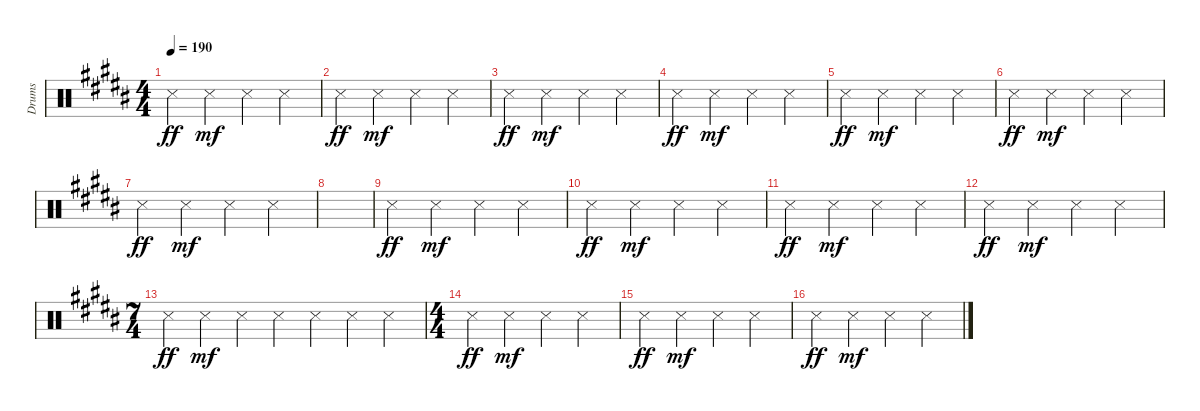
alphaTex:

\bracketExtendMode groupsimilarinstruments
\otherSystemsTrackNameOrientation horizontal
\track ("Drumkit" "Drums") {mute instrument percussion}
\staff {score}
\articulation defaults
\ts (4 4)
\tempo 190
\clef neutral
\ks b "Snare (side stick) 3"{acc forcenatural}.4{dy ff} "Snare (side stick) 3"{acc forcenatural}.4{dy mf} "Snare (side stick) 3"{acc forcenatural}.4 "Snare (side stick) 3"{acc forcenatural}.4
|
"Snare (side stick) 3"{acc forcenatural}.4{dy ff} "Snare (side stick) 3"{acc forcenatural}.4{dy mf} "Snare (side stick) 3"{acc forcenatural}.4 "Snare (side stick) 3"{acc forcenatural}.4 |
"Snare (side stick) 3"{acc forcenatural}.4{dy ff} "Snare (side stick) 3"{acc forcenatural}.4{dy mf} "Snare (side stick) 3"{acc forcenatural}.4 "Snare (side stick) 3"{acc forcenatural}.4 |
"Snare (side stick) 3"{acc forcenatural}.4{dy ff} "Snare (side stick) 3"{acc forcenatural}.4{dy mf} "Snare (side stick) 3"{acc forcenatural}.4 "Snare (side stick) 3"{acc forcenatural}.4 |
"Snare (side stick) 3"{acc forcenatural}.4{dy ff} "Snare (side stick) 3"{acc forcenatural}.4{dy mf} "Snare (side stick) 3"{acc forcenatural}.4 "Snare (side stick) 3"{acc forcenatural}.4 |
"Snare (side stick) 3"{acc forcenatural}.4{dy ff} "Snare (side stick) 3"{acc forcenatural}.4{dy mf} "Snare (side stick) 3"{acc forcenatural}.4 "Snare (side stick) 3"{acc forcenatural}.4 |
"Snare (side stick) 3"{acc forcenatural}.4{dy ff} "Snare (side stick) 3"{acc forcenatural}.4{dy mf} "Snare (side stick) 3"{acc forcenatural}.4 "Snare (side stick) 3"{acc forcenatural}.4 |
|
\scale
0.333333 "Snare (side stick) 3"{acc forcenatural}.4{dy ff} "Snare (side stick) 3"{acc forcenatural}.4{dy mf} "Snare (side stick) 3"{acc forcenatural}.4 "Snare (side stick) 3"{acc forcenatural}.4 |
\scale
0.333333 "Snare (side stick) 3"{acc forcenatural}.4{dy ff} "Snare (side stick) 3"{acc forcenatural}.4{dy mf} "Snare (side stick) 3"{acc forcenatural}.4 "Snare (side stick) 3"{acc forcenatural}.4 |
\scale
0.263889 "Snare (side stick) 3"{acc forcenatural}.4{dy ff} "Snare (side stick) 3"{acc forcenatural}.4{dy mf} "Snare (side stick) 3"{acc forcenatural}.4 "Snare (side stick) 3"{acc forcenatural}.4 |
\scale
0.263889 "Snare (side stick) 3"{acc forcenatural}.4{dy ff} "Snare (side stick) 3"{acc forcenatural}.4{dy mf} "Snare (side stick) 3"{acc forcenatural}.4 "Snare (side stick) 3"{acc forcenatural}.4 |
\ts (7 4)
\scale
0.472222 "Snare (side stick) 3"{acc forcenatural}.4{dy ff} "Snare (side stick) 3"{acc forcenatural}.4{dy mf} "Snare (side stick) 3"{acc forcenatural}.4 "Snare (side stick) 3"{acc forcenatural}.4 "Snare (side stick) 3"{acc forcenatural}.4 "Snare (side stick) 3"{acc forcenatural}.4 "Snare (side stick) 3"{acc forcenatural}.4 |
\ts (4 4)
\scale
0.472222 "Snare (side stick) 3"{acc forcenatural}.4{dy ff} "Snare (side stick) 3"{acc forcenatural}.4{dy mf} "Snare (side stick) 3"{acc forcenatural}.4 "Snare (side stick) 3"{acc forcenatural}.4 |
\scale
0.263889 "Snare (side stick) 3"{acc forcenatural}.4{dy ff} "Snare (side stick) 3"{acc forcenatural}.4{dy mf} "Snare (side stick) 3"{acc forcenatural}.4 "Snare (side stick) 3"{acc forcenatural}.4 |
\scale
0.263889 "Snare (side stick) 3"{acc forcenatural}.4{dy ff} "Snare (side stick) 3"{acc forcenatural}.4{dy mf} "Snare (side stick) 3"{acc forcenatural}.4 "Snare (side stick) 3"{acc forcenatural}.4
